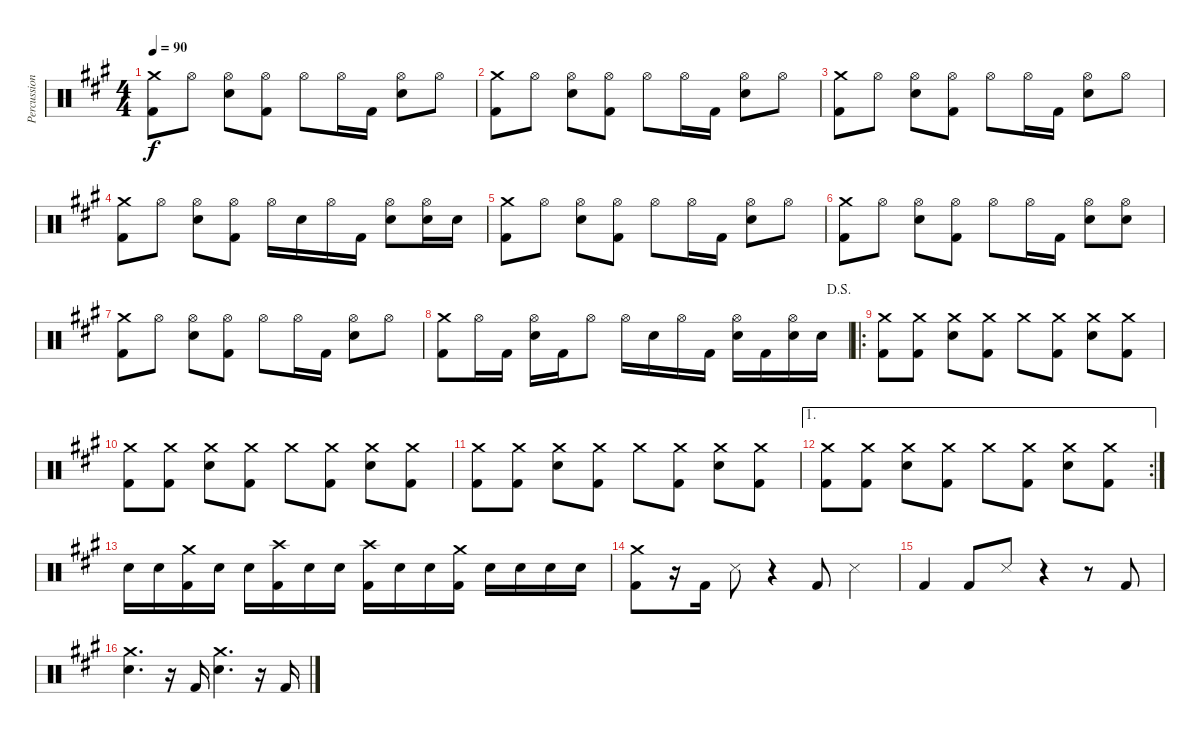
\track ("Percussion" "Percussion") {instrument percussion}
\staff {score}
\articulation defaults
\ts (4 4)
\tempo 90
\clef neutral
\ks f#minor
("Crash medium (hit)" "Kick (hit) 2").8{dy f} "Hi-Hat (open)".8 ("Hi-Hat (open)" "Electric Snare (hit)").8 ("Hi-Hat (open)" "Kick (hit) 2").8 "Hi-Hat (open)".8 "Hi-Hat (open)".16 "Kick (hit) 2".16 ("Hi-Hat (open)" "Electric Snare (hit)").8 "Hi-Hat (open)".8 |
("Crash medium (hit)" "Kick (hit) 2").8 "Hi-Hat (open)".8 ("Hi-Hat (open)" "Electric Snare (hit)").8 ("Hi-Hat (open)" "Kick (hit) 2").8 "Hi-Hat (open)".8 "Hi-Hat (open)".16 "Kick (hit) 2".16 ("Hi-Hat (open)" "Electric Snare (hit)").8 "Hi-Hat (open)".8 |
("Crash medium (hit)" "Kick (hit) 2").8 "Hi-Hat (open)".8 ("Hi-Hat (open)" "Electric Snare (hit)").8 ("Hi-Hat (open)" "Kick (hit) 2").8 "Hi-Hat (open)".8 "Hi-Hat (open)".16 "Kick (hit) 2".16 ("Hi-Hat (open)" "Electric Snare (hit)").8 "Hi-Hat (open)".8 |
("Crash medium (hit)" "Kick (hit) 2").8 "Hi-Hat (open)".8 ("Hi-Hat (open)" "Electric Snare (hit)").8 ("Hi-Hat (open)" "Kick (hit) 2").8 "Hi-Hat (open)".16 "Electric Snare (hit)".16 "Hi-Hat (open)".16 "Kick (hit) 2".16 ("Hi-Hat (open)" "Electric Snare (hit)").8 ("Hi-Hat (open)" "Electric Snare (hit)").16 "Electric Snare (hit)".16 |
("Crash medium (hit)" "Kick (hit) 2").8 "Hi-Hat (open)".8 ("Hi-Hat (open)" "Electric Snare (hit)").8 ("Hi-Hat (open)" "Kick (hit) 2").8 "Hi-Hat (open)".8 "Hi-Hat (open)".16 "Kick (hit) 2".16 ("Hi-Hat (open)" "Electric Snare (hit)").8 "Hi-Hat (open)".8 |
("Crash medium (hit)" "Kick (hit) 2").8 "Hi-Hat (open)".8 ("Hi-Hat (open)" "Electric Snare (hit)").8 ("Hi-Hat (open)" "Kick (hit) 2").8 "Hi-Hat (open)".8 "Hi-Hat (open)".16 "Kick (hit) 2".16 ("Hi-Hat (open)" "Electric Snare (hit)").8 ("Hi-Hat (open)" "Electric Snare (hit)").8 |
("Crash medium (hit)" "Kick (hit) 2").8 "Hi-Hat (open)".8 ("Hi-Hat (open)" "Electric Snare (hit)").8 ("Hi-Hat (open)" "Kick (hit) 2").8 "Hi-Hat (open)".8 "Hi-Hat (open)".16 "Kick (hit) 2".16 ("Hi-Hat (open)" "Electric Snare (hit)").8 "Hi-Hat (open)".8 |
\jump dalsegno
("Crash medium (hit)" "Kick (hit) 2").8 "Hi-Hat (open)".16 "Kick (hit) 2".16 ("Hi-Hat (open)" "Electric Snare (hit)").16 "Kick (hit) 2".16 "Hi-Hat (open)".8 "Hi-Hat (open)".16 "Electric Snare (hit)".16 "Hi-Hat (open)".16 "Kick (hit) 2".16 ("Hi-Hat (open)" "Electric Snare (hit)").16 "Kick (hit) 2".16 ("Hi-Hat (open)" "Electric Snare (hit)").16 "Electric Snare (hit)".16 |
\ro
("Crash medium (hit)" "Kick (hit) 2").8 ("Crash medium (hit)" "Kick (hit) 2").8 ("Crash medium (hit)" "Electric Snare (hit)").8 ("Crash medium (hit)" "Kick (hit) 2").8 "Crash medium (hit)".8 ("Crash medium (hit)" "Kick (hit) 2").8 ("Crash medium (hit)" "Electric Snare (hit)").8 ("Crash medium (hit)" "Kick (hit) 2").8 |
("Crash medium (hit)" "Kick (hit) 2").8 ("Crash medium (hit)" "Kick (hit) 2").8 ("Crash medium (hit)" "Electric Snare (hit)").8 ("Crash medium (hit)" "Kick (hit) 2").8 "Crash medium (hit)".8 ("Crash medium (hit)" "Kick (hit) 2").8 ("Crash medium (hit)" "Electric Snare (hit)").8 ("Crash medium (hit)" "Kick (hit) 2").8 |
("Crash medium (hit)" "Kick (hit) 2").8 ("Crash medium (hit)" "Kick (hit) 2").8 ("Crash medium (hit)" "Electric Snare (hit)").8 ("Crash medium (hit)" "Kick (hit) 2").8 "Crash medium (hit)".8 ("Crash medium (hit)" "Kick (hit) 2").8 ("Crash medium (hit)" "Electric Snare (hit)").8 ("Crash medium (hit)" "Kick (hit) 2").8 |
\ae 1
\rc 2
("Crash medium (hit)" "Kick (hit) 2").8 ("Crash medium (hit)" "Kick (hit) 2").8 ("Crash medium (hit)" "Electric Snare (hit)").8 ("Crash medium (hit)" "Kick (hit) 2").8 "Crash medium (hit)".8 ("Crash medium (hit)" "Kick (hit) 2").8 ("Crash medium (hit)" "Electric Snare (hit)").8 ("Crash medium (hit)" "Kick (hit) 2").8 |
"Electric Snare (hit)".16 "Electric Snare (hit)".16 ("Crash medium (hit)" "Kick (hit) 2").16 "Electric Snare (hit)".16 "Electric Snare (hit)".16 ("Crash high (hit)" "Kick (hit) 2").16 "Electric Snare (hit)".16 "Electric Snare (hit)".16 ("Crash high (hit)" "Kick (hit) 2").16 "Electric Snare (hit)".16 "Electric Snare (hit)".16 ("Crash medium (hit)" "Kick (hit) 2").16 "Electric Snare (hit)".16 "Electric Snare (hit)".16 "Electric Snare (hit)".16 "Electric Snare (hit)".16 |
("Crash medium (hit)" "Kick (hit) 2").8 r.16 "Kick (hit) 2".16 "Snare (side stick) 3".8 r.4 "Kick (hit) 2".8 "Snare (side stick) 3".4 |
"Kick (hit) 2".4 "Kick (hit) 2".8 "Snare (side stick) 3".8 r.4 r.8 "Kick (hit) 2".8 |
("Crash medium (hit)" "Electric Snare (hit)").4{d} r.16 "Kick (hit) 2".16 ("Crash medium (hit)" "Electric Snare (hit)").4{d} r.16 "Kick (hit) 2".16
